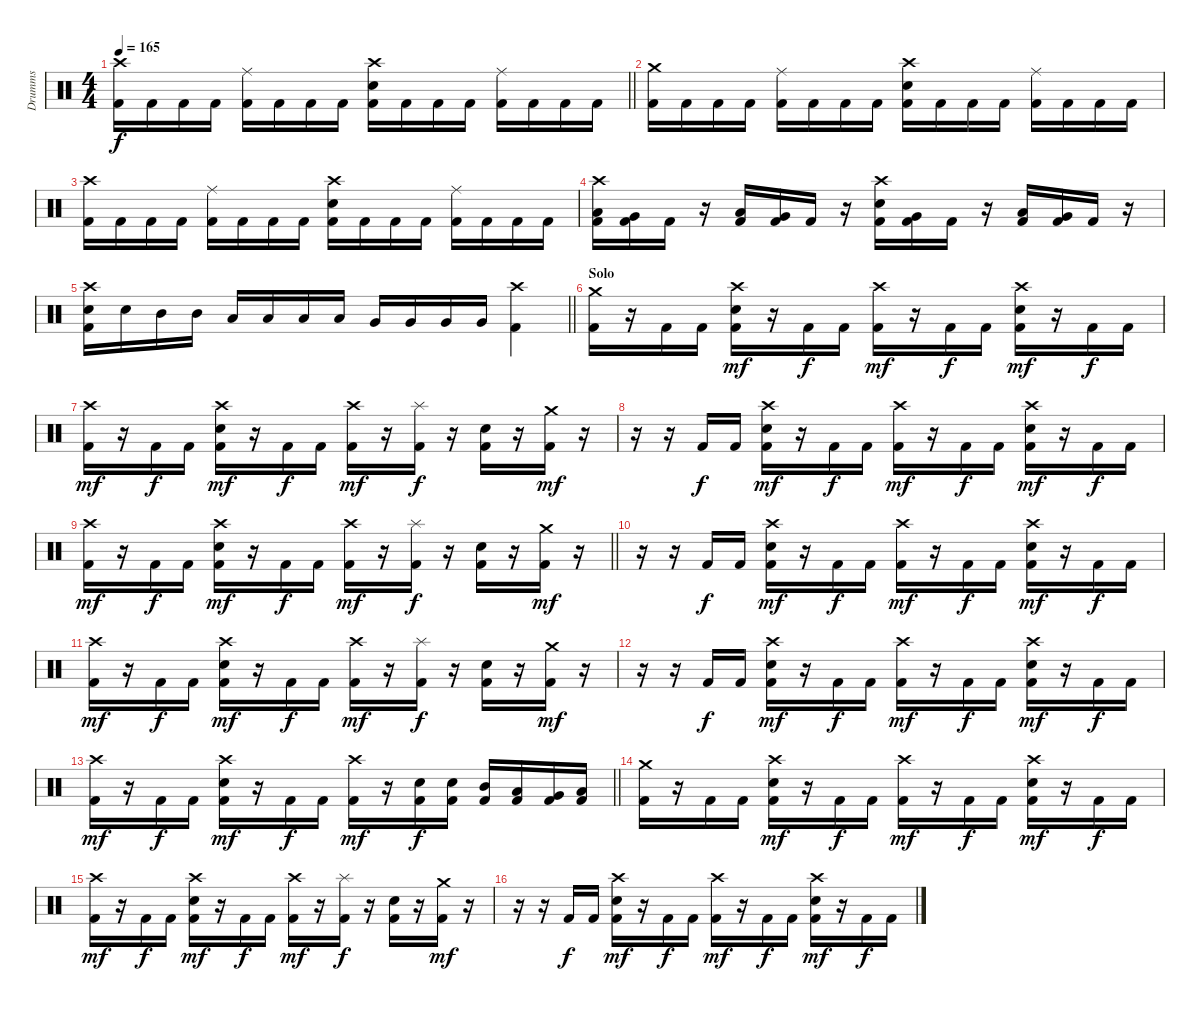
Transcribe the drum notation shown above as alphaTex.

\track ("Drumms" "Drumms") {instrument percussion}
\staff {score}
\articulation defaults
\ts (4 4)
\tempo 165
\clef neutral
\barLineRight lightlight
\ks c
("Crash high (hit)" "Kick (hit) 2").16{dy f} "Kick (hit) 2".16 "Kick (hit) 2".16 "Kick (hit) 2".16 ("Ride (middle)" "Kick (hit) 2").16 "Kick (hit) 2".16 "Kick (hit) 2".16 "Kick (hit) 2".16 ("Crash high (hit)" "Snare (hit) 2" "Kick (hit) 2").16 "Kick (hit) 2".16 "Kick (hit) 2".16 "Kick (hit) 2".16 ("Ride (middle)" "Kick (hit) 2").16 "Kick (hit) 2".16 "Kick (hit) 2".16 "Kick (hit) 2".16 |
("Crash medium (hit)" "Kick (hit) 2").16 "Kick (hit) 2".16 "Kick (hit) 2".16 "Kick (hit) 2".16 ("Ride (middle)" "Kick (hit) 2").16 "Kick (hit) 2".16 "Kick (hit) 2".16 "Kick (hit) 2".16 ("Crash high (hit)" "Snare (hit) 2" "Kick (hit) 2").16 "Kick (hit) 2".16 "Kick (hit) 2".16 "Kick (hit) 2".16 ("Ride (middle)" "Kick (hit) 2").16 "Kick (hit) 2".16 "Kick (hit) 2".16 "Kick (hit) 2".16 |
("Crash high (hit)" "Kick (hit) 2").16 "Kick (hit) 2".16 "Kick (hit) 2".16 "Kick (hit) 2".16 ("Ride (middle)" "Kick (hit) 2").16 "Kick (hit) 2".16 "Kick (hit) 2".16 "Kick (hit) 2".16 ("Crash high (hit)" "Snare (hit) 2" "Kick (hit) 2").16 "Kick (hit) 2".16 "Kick (hit) 2".16 "Kick (hit) 2".16 ("Ride (middle)" "Kick (hit) 2").16 "Kick (hit) 2".16 "Kick (hit) 2".16 "Kick (hit) 2".16 |
("Crash high (hit)" "Low Tom (hit)" "Kick (hit) 2").16 ("Very Low Tom (hit)" "Kick (hit) 2").16 "Kick (hit) 2".16 r.16 ("Low Tom (hit)" "Kick (hit) 2").16 ("Very Low Tom (hit)" "Kick (hit) 2").16 "Kick (hit) 2".16 r.16 ("Crash high (hit)" "Snare (hit) 2" "Kick (hit) 2").16 ("Very Low Tom (hit)" "Kick (hit) 2").16 "Kick (hit) 2".16 r.16 ("Low Tom (hit)" "Kick (hit) 2").16 ("Very Low Tom (hit)" "Kick (hit) 2").16 "Kick (hit) 2".16 r.16 |
\barLineRight lightlight
("Crash high (hit)" "Snare (hit) 2" "Kick (hit) 2").16 "Snare (hit) 2".16 "Mid Tom (hit)".16 "Mid Tom (hit)".16 "Low Tom (hit)".16 "Low Tom (hit)".16 "Low Tom (hit)".16 "Low Tom (hit)".16 "Very Low Tom (hit)".16 "Very Low Tom (hit)".16 "Very Low Tom (hit)".16 "Very Low Tom (hit)".16 ("Crash high (hit)" "Kick (hit) 2").4 |
\section ("" "Solo")
("Crash medium (hit)" "Kick (hit) 2").16 r.16 "Kick (hit) 2".16 "Kick (hit) 2".16 ("Crash high (hit)" "Snare (hit) 2" "Kick (hit) 2").16{dy mf} r.16 "Kick (hit) 2".16{dy f} "Kick (hit) 2".16 ("Crash high (hit)" "Kick (hit) 2").16{dy mf} r.16 "Kick (hit) 2".16{dy f} "Kick (hit) 2".16 ("Crash high (hit)" "Snare (hit) 2" "Kick (hit) 2").16{dy mf} r.16 "Kick (hit) 2".16{dy f} "Kick (hit) 2".16 |
("Crash high (hit)" "Kick (hit) 2").16{dy mf} r.16 "Kick (hit) 2".16{dy f} "Kick (hit) 2".16 ("Crash high (hit)" "Snare (hit) 2" "Kick (hit) 2").16{dy mf} r.16 "Kick (hit) 2".16{dy f} "Kick (hit) 2".16 ("Crash high (hit)" "Kick (hit) 2").16{dy mf} r.16 ("Splash (hit)" "Kick (hit) 2").16{dy f} r.16 ("Snare (hit) 2" "Kick (hit) 2").16 r.16 ("Crash medium (hit)" "Kick (hit) 2").16{dy mf} r.16 |
r.16 r.16 "Kick (hit) 2".16{dy f} "Kick (hit) 2".16 ("Crash high (hit)" "Snare (hit) 2" "Kick (hit) 2").16{dy mf} r.16 "Kick (hit) 2".16{dy f} "Kick (hit) 2".16 ("Crash high (hit)" "Kick (hit) 2").16{dy mf} r.16 "Kick (hit) 2".16{dy f} "Kick (hit) 2".16 ("Crash high (hit)" "Snare (hit) 2" "Kick (hit) 2").16{dy mf} r.16 "Kick (hit) 2".16{dy f} "Kick (hit) 2".16 |
\barLineRight lightlight
("Crash high (hit)" "Kick (hit) 2").16{dy mf} r.16 "Kick (hit) 2".16{dy f} "Kick (hit) 2".16 ("Crash high (hit)" "Snare (hit) 2" "Kick (hit) 2").16{dy mf} r.16 "Kick (hit) 2".16{dy f} "Kick (hit) 2".16 ("Crash high (hit)" "Kick (hit) 2").16{dy mf} r.16 ("Splash (hit)" "Kick (hit) 2").16{dy f} r.16 ("Snare (hit) 2" "Kick (hit) 2").16 r.16 ("Crash medium (hit)" "Kick (hit) 2").16{dy mf} r.16 |
r.16 r.16 "Kick (hit) 2".16{dy f} "Kick (hit) 2".16 ("Crash high (hit)" "Snare (hit) 2" "Kick (hit) 2").16{dy mf} r.16 "Kick (hit) 2".16{dy f} "Kick (hit) 2".16 ("Crash high (hit)" "Kick (hit) 2").16{dy mf} r.16 "Kick (hit) 2".16{dy f} "Kick (hit) 2".16 ("Crash high (hit)" "Snare (hit) 2" "Kick (hit) 2").16{dy mf} r.16 "Kick (hit) 2".16{dy f} "Kick (hit) 2".16 |
("Crash high (hit)" "Kick (hit) 2").16{dy mf} r.16 "Kick (hit) 2".16{dy f} "Kick (hit) 2".16 ("Crash high (hit)" "Snare (hit) 2" "Kick (hit) 2").16{dy mf} r.16 "Kick (hit) 2".16{dy f} "Kick (hit) 2".16 ("Crash high (hit)" "Kick (hit) 2").16{dy mf} r.16 ("Splash (hit)" "Kick (hit) 2").16{dy f} r.16 ("Snare (hit) 2" "Kick (hit) 2").16 r.16 ("Crash medium (hit)" "Kick (hit) 2").16{dy mf} r.16 |
r.16 r.16 "Kick (hit) 2".16{dy f} "Kick (hit) 2".16 ("Crash high (hit)" "Snare (hit) 2" "Kick (hit) 2").16{dy mf} r.16 "Kick (hit) 2".16{dy f} "Kick (hit) 2".16 ("Crash high (hit)" "Kick (hit) 2").16{dy mf} r.16 "Kick (hit) 2".16{dy f} "Kick (hit) 2".16 ("Crash high (hit)" "Snare (hit) 2" "Kick (hit) 2").16{dy mf} r.16 "Kick (hit) 2".16{dy f} "Kick (hit) 2".16 |
\barLineRight lightlight
("Crash high (hit)" "Kick (hit) 2").16{dy mf} r.16 "Kick (hit) 2".16{dy f} "Kick (hit) 2".16 ("Crash high (hit)" "Snare (hit) 2" "Kick (hit) 2").16{dy mf} r.16 "Kick (hit) 2".16{dy f} "Kick (hit) 2".16 ("Crash high (hit)" "Kick (hit) 2").16{dy mf} r.16 ("Snare (hit) 2" "Kick (hit) 2").16{dy f} ("Snare (hit) 2" "Kick (hit) 2").16 ("Mid Tom (hit)" "Kick (hit) 2").16 ("Low Tom (hit)" "Kick (hit) 2").16 ("Very Low Tom (hit)" "Kick (hit) 2").16 ("Low Floor Tom (hit)" "Kick (hit) 2").16 |
("Crash medium (hit)" "Kick (hit) 2").16 r.16 "Kick (hit) 2".16 "Kick (hit) 2".16 ("Crash high (hit)" "Snare (hit) 2" "Kick (hit) 2").16{dy mf} r.16 "Kick (hit) 2".16{dy f} "Kick (hit) 2".16 ("Crash high (hit)" "Kick (hit) 2").16{dy mf} r.16 "Kick (hit) 2".16{dy f} "Kick (hit) 2".16 ("Crash high (hit)" "Snare (hit) 2" "Kick (hit) 2").16{dy mf} r.16 "Kick (hit) 2".16{dy f} "Kick (hit) 2".16 |
("Crash high (hit)" "Kick (hit) 2").16{dy mf} r.16 "Kick (hit) 2".16{dy f} "Kick (hit) 2".16 ("Crash high (hit)" "Snare (hit) 2" "Kick (hit) 2").16{dy mf} r.16 "Kick (hit) 2".16{dy f} "Kick (hit) 2".16 ("Crash high (hit)" "Kick (hit) 2").16{dy mf} r.16 ("Splash (hit)" "Kick (hit) 2").16{dy f} r.16 ("Snare (hit) 2" "Kick (hit) 2").16 r.16 ("Crash medium (hit)" "Kick (hit) 2").16{dy mf} r.16 |
r.16 r.16 "Kick (hit) 2".16{dy f} "Kick (hit) 2".16 ("Crash high (hit)" "Snare (hit) 2" "Kick (hit) 2").16{dy mf} r.16 "Kick (hit) 2".16{dy f} "Kick (hit) 2".16 ("Crash high (hit)" "Kick (hit) 2").16{dy mf} r.16 "Kick (hit) 2".16{dy f} "Kick (hit) 2".16 ("Crash high (hit)" "Snare (hit) 2" "Kick (hit) 2").16{dy mf} r.16 "Kick (hit) 2".16{dy f} "Kick (hit) 2".16
